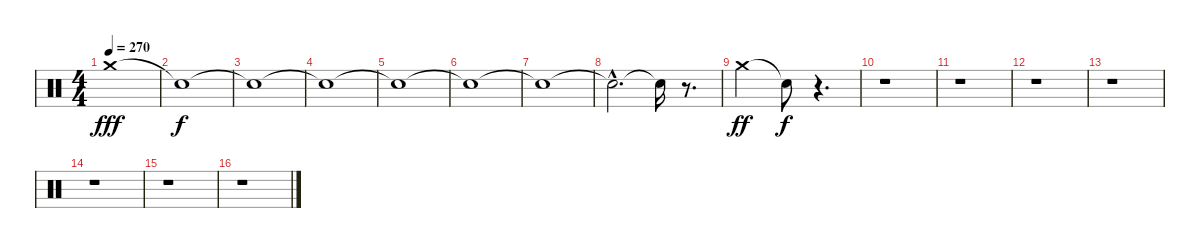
\track "" {instrument percussion}
\staff {score}
\articulation defaults
\ts (4 4)
\tempo 270
\clef neutral
\ks c "Crash medium (hit)".1{dy fff}
|
"Snare (hit)"{t}.1{dy f} |
"Snare (hit)"{t}.1 |
"Snare (hit)"{t}.1 |
"Snare (hit)"{t}.1 |
"Snare (hit)"{t}.1 |
"Snare (hit)"{t}.1 |
"Snare (hit)"{hac t}.2{d} "Snare (hit)"{t}.16 r.8{d} |
"Crash medium (hit)".2{dy ff} "Snare (hit)"{t}.8{dy f} r.4{d} |
r.1 |
r.1 |
r.1 |
r.1 |
r.1 |
r.1 |
r.1
